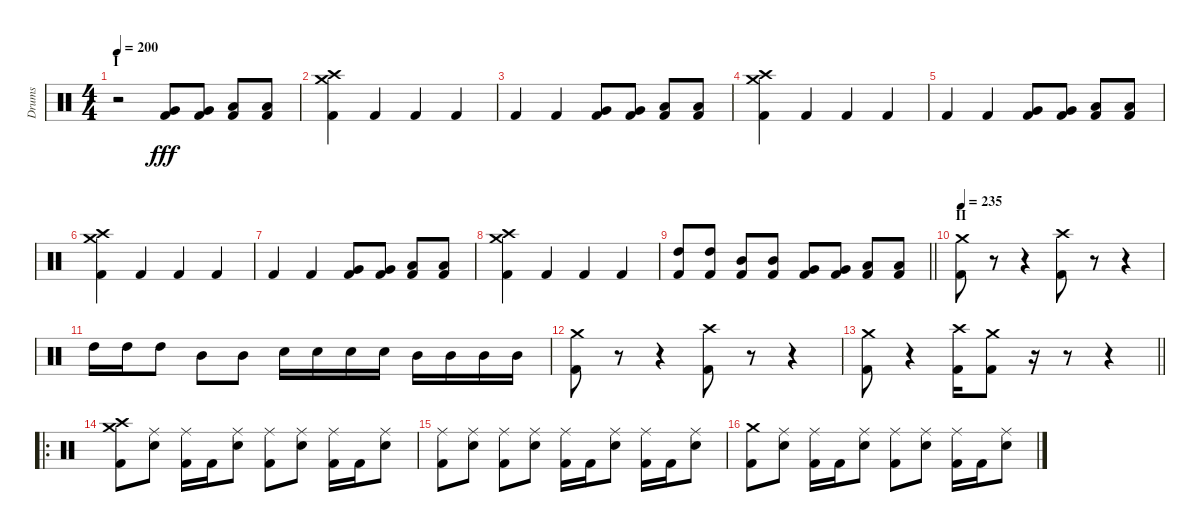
\track ("Drums" "Drums") {instrument percussion}
\staff {score}
\articulation defaults
\ts (4 4)
\section ("" "I")
\tempo 200
\clef neutral
\ks c
r.2{dy fff} ("Very Low Tom (hit)" "Kick (hit) 2").8 ("Very Low Tom (hit)" "Kick (hit) 2").8 ("Low Floor Tom (hit)" "Kick (hit) 2").8 ("Low Floor Tom (hit)" "Kick (hit) 2").8 |
("Crash medium (hit)" "Crash high (hit)" "Kick (hit) 2").4 "Kick (hit) 2".4 "Kick (hit) 2".4 "Kick (hit) 2".4 |
"Kick (hit) 2".4 "Kick (hit) 2".4 ("Very Low Tom (hit)" "Kick (hit) 2").8 ("Very Low Tom (hit)" "Kick (hit) 2").8 ("Low Floor Tom (hit)" "Kick (hit) 2").8 ("Low Floor Tom (hit)" "Kick (hit) 2").8 |
("Crash medium (hit)" "Crash high (hit)" "Kick (hit) 2").4 "Kick (hit) 2".4 "Kick (hit) 2".4 "Kick (hit) 2".4 |
"Kick (hit) 2".4 "Kick (hit) 2".4 ("Very Low Tom (hit)" "Kick (hit) 2").8 ("Very Low Tom (hit)" "Kick (hit) 2").8 ("Low Floor Tom (hit)" "Kick (hit) 2").8 ("Low Floor Tom (hit)" "Kick (hit) 2").8 |
("Crash medium (hit)" "Crash high (hit)" "Kick (hit) 2").4 "Kick (hit) 2".4 "Kick (hit) 2".4 "Kick (hit) 2".4 |
"Kick (hit) 2".4 "Kick (hit) 2".4 ("Very Low Tom (hit)" "Kick (hit) 2").8 ("Very Low Tom (hit)" "Kick (hit) 2").8 ("Low Floor Tom (hit)" "Kick (hit) 2").8 ("Low Floor Tom (hit)" "Kick (hit) 2").8 |
("Crash medium (hit)" "Crash high (hit)" "Kick (hit) 2").4 "Kick (hit) 2".4 "Kick (hit) 2".4 "Kick (hit) 2".4 |
\barLineRight lightlight
("High Tom (hit)" "Kick (hit) 2").8 ("High Tom (hit)" "Kick (hit) 2").8 ("Mid Tom (hit)" "Kick (hit) 2").8 ("Mid Tom (hit)" "Kick (hit) 2").8 ("Very Low Tom (hit)" "Kick (hit) 2").8 ("Very Low Tom (hit)" "Kick (hit) 2").8 ("Low Floor Tom (hit)" "Kick (hit) 2").8 ("Low Floor Tom (hit)" "Kick (hit) 2").8 |
\section ("" "II")
\tempo 235
("Crash medium (hit)" "Kick (hit) 2").8 r.8 r.4 ("Crash high (hit)" "Kick (hit) 2").8 r.8 r.4 |
"High Tom (hit)".16 "High Tom (hit)".16 "High Tom (hit)".8 "Mid Tom (hit)".8 "Mid Tom (hit)".8 "Electric Snare (hit)".16 "Electric Snare (hit)".16 "Electric Snare (hit)".16 "Electric Snare (hit)".16 "Mid Tom (hit)".16 "Mid Tom (hit)".16 "Mid Tom (hit)".16 "Mid Tom (hit)".16 |
("Crash medium (hit)" "Kick (hit) 2").8 r.8 r.4 ("Crash high (hit)" "Kick (hit) 2").8 r.8 r.4 |
\barLineRight lightlight
("Crash medium (hit)" "Kick (hit) 2").8 r.4 ("Crash high (hit)" "Kick (hit) 2").16 ("Crash medium (hit)" "Kick (hit) 2").8 r.16 r.8 r.4 |
\ro
("Crash high (hit)" "Crash medium (hit)" "Kick (hit) 2").8 ("Ride (middle)" "Electric Snare (hit)").8 ("Ride (middle)" "Kick (hit) 2").16 "Kick (hit) 2".16 ("Ride (middle)" "Electric Snare (hit)").8 ("Ride (middle)" "Kick (hit) 2").8 ("Ride (middle)" "Electric Snare (hit)").8 ("Ride (middle)" "Kick (hit) 2").16 "Kick (hit) 2".16 ("Ride (middle)" "Electric Snare (hit)").8 |
("Ride (middle)" "Kick (hit) 2").8 ("Ride (middle)" "Electric Snare (hit)").8 ("Ride (middle)" "Kick (hit) 2").8 ("Ride (middle)" "Electric Snare (hit)").8 ("Ride (middle)" "Kick (hit) 2").16 "Kick (hit) 2".16 ("Ride (middle)" "Electric Snare (hit)").8 ("Ride (middle)" "Kick (hit) 2").16 "Kick (hit) 2".16 ("Ride (middle)" "Electric Snare (hit)").8 |
("Crash medium (hit)" "Kick (hit) 2").8 ("Ride (middle)" "Electric Snare (hit)").8 ("Ride (middle)" "Kick (hit) 2").16 "Kick (hit) 2".16 ("Ride (middle)" "Electric Snare (hit)").8 ("Ride (middle)" "Kick (hit) 2").8 ("Ride (middle)" "Electric Snare (hit)").8 ("Ride (middle)" "Kick (hit) 2").16 "Kick (hit) 2".16 ("Ride (middle)" "Electric Snare (hit)").8
